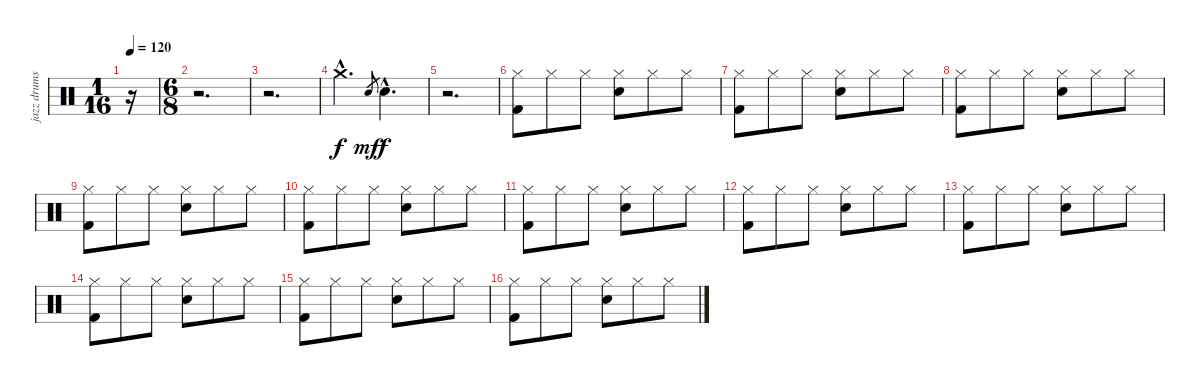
\track ("jazz drumset" "jazz drums") {instrument percussion}
\staff {score}
\articulation defaults
\ts (1 16)
\tempo 120
\clef neutral
\ks c
r.16{dy f} |
\ts (6 8)
r.2{d} |
r.2{d} |
"Crash medium (hit)"{hac}.4{d} "Snare (hit) 2".8{gr dy mf} "Snare (hit) 2"{hac}.4{d dy f} |
r.2{d} |
("Hi-Hat (closed)" "Kick (hit) 2").8 "Hi-Hat (closed)".8 "Hi-Hat (closed)".8 ("Hi-Hat (closed)" "Snare (hit) 2").8 "Hi-Hat (closed)".8 "Hi-Hat (closed)".8 |
("Hi-Hat (closed)" "Kick (hit) 2").8 "Hi-Hat (closed)".8 "Hi-Hat (closed)".8 ("Hi-Hat (closed)" "Snare (hit) 2").8 "Hi-Hat (closed)".8 "Hi-Hat (closed)".8 |
("Hi-Hat (closed)" "Kick (hit) 2").8 "Hi-Hat (closed)".8 "Hi-Hat (closed)".8 ("Hi-Hat (closed)" "Snare (hit) 2").8 "Hi-Hat (closed)".8 "Hi-Hat (closed)".8 |
("Hi-Hat (closed)" "Kick (hit) 2").8 "Hi-Hat (closed)".8 "Hi-Hat (closed)".8 ("Hi-Hat (closed)" "Snare (hit) 2").8 "Hi-Hat (closed)".8 "Hi-Hat (closed)".8 |
("Hi-Hat (closed)" "Kick (hit) 2").8 "Hi-Hat (closed)".8 "Hi-Hat (closed)".8 ("Hi-Hat (closed)" "Snare (hit) 2").8 "Hi-Hat (closed)".8 "Hi-Hat (closed)".8 |
("Hi-Hat (closed)" "Kick (hit) 2").8 "Hi-Hat (closed)".8 "Hi-Hat (closed)".8 ("Hi-Hat (closed)" "Snare (hit) 2").8 "Hi-Hat (closed)".8 "Hi-Hat (closed)".8 |
("Hi-Hat (closed)" "Kick (hit) 2").8 "Hi-Hat (closed)".8 "Hi-Hat (closed)".8 ("Hi-Hat (closed)" "Snare (hit) 2").8 "Hi-Hat (closed)".8 "Hi-Hat (closed)".8 |
("Hi-Hat (closed)" "Kick (hit) 2").8 "Hi-Hat (closed)".8 "Hi-Hat (closed)".8 ("Hi-Hat (closed)" "Snare (hit) 2").8 "Hi-Hat (closed)".8 "Hi-Hat (closed)".8 |
("Hi-Hat (closed)" "Kick (hit) 2").8 "Hi-Hat (closed)".8 "Hi-Hat (closed)".8 ("Hi-Hat (closed)" "Snare (hit) 2").8 "Hi-Hat (closed)".8 "Hi-Hat (closed)".8 |
("Hi-Hat (closed)" "Kick (hit) 2").8 "Hi-Hat (closed)".8 "Hi-Hat (closed)".8 ("Hi-Hat (closed)" "Snare (hit) 2").8 "Hi-Hat (closed)".8 "Hi-Hat (closed)".8 |
("Hi-Hat (closed)" "Kick (hit) 2").8 "Hi-Hat (closed)".8 "Hi-Hat (closed)".8 ("Hi-Hat (closed)" "Snare (hit) 2").8 "Hi-Hat (closed)".8 "Hi-Hat (closed)".8
